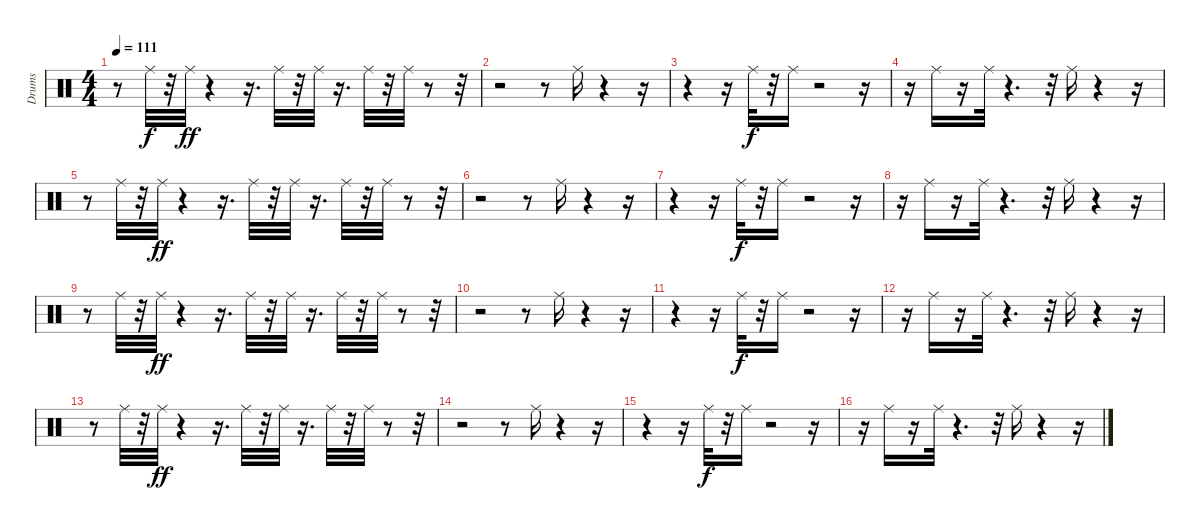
\track ("Drums" "Drums") {instrument percussion}
\staff {score}
\articulation defaults
\ts (4 4)
\tempo 111
\clef neutral
\ks c
r.8{dy f} "Ride (middle)".32 r.32 "Ride (middle)".32{dy ff} r.4 r.16{d} "Ride (middle)".32 r.32 "Ride (middle)".32 r.16{d} "Ride (middle)".32 r.32 "Ride (middle)".32 r.8 r.32 |
r.2 r.8 "Ride (middle)".16 r.4 r.16 |
r.4 r.16 "Ride (middle)".32{dy f} r.32 "Ride (middle)".16 r.2 r.16 |
r.16 "Ride (middle)".16 r.16 "Ride (middle)".32 r.4{d} r.32 "Ride (middle)".16 r.4 r.16 |
r.8 "Ride (middle)".32 r.32 "Ride (middle)".32{dy ff} r.4 r.16{d} "Ride (middle)".32 r.32 "Ride (middle)".32 r.16{d} "Ride (middle)".32 r.32 "Ride (middle)".32 r.8 r.32 |
r.2 r.8 "Ride (middle)".16 r.4 r.16 |
r.4 r.16 "Ride (middle)".32{dy f} r.32 "Ride (middle)".16 r.2 r.16 |
r.16 "Ride (middle)".16 r.16 "Ride (middle)".32 r.4{d} r.32 "Ride (middle)".16 r.4 r.16 |
r.8 "Ride (middle)".32 r.32 "Ride (middle)".32{dy ff} r.4 r.16{d} "Ride (middle)".32 r.32 "Ride (middle)".32 r.16{d} "Ride (middle)".32 r.32 "Ride (middle)".32 r.8 r.32 |
r.2 r.8 "Ride (middle)".16 r.4 r.16 |
r.4 r.16 "Ride (middle)".32{dy f} r.32 "Ride (middle)".16 r.2 r.16 |
r.16 "Ride (middle)".16 r.16 "Ride (middle)".32 r.4{d} r.32 "Ride (middle)".16 r.4 r.16 |
r.8 "Ride (middle)".32 r.32 "Ride (middle)".32{dy ff} r.4 r.16{d} "Ride (middle)".32 r.32 "Ride (middle)".32 r.16{d} "Ride (middle)".32 r.32 "Ride (middle)".32 r.8 r.32 |
r.2 r.8 "Ride (middle)".16 r.4 r.16 |
r.4 r.16 "Ride (middle)".32{dy f} r.32 "Ride (middle)".16 r.2 r.16 |
r.16 "Ride (middle)".16 r.16 "Ride (middle)".32 r.4{d} r.32 "Ride (middle)".16 r.4 r.16
